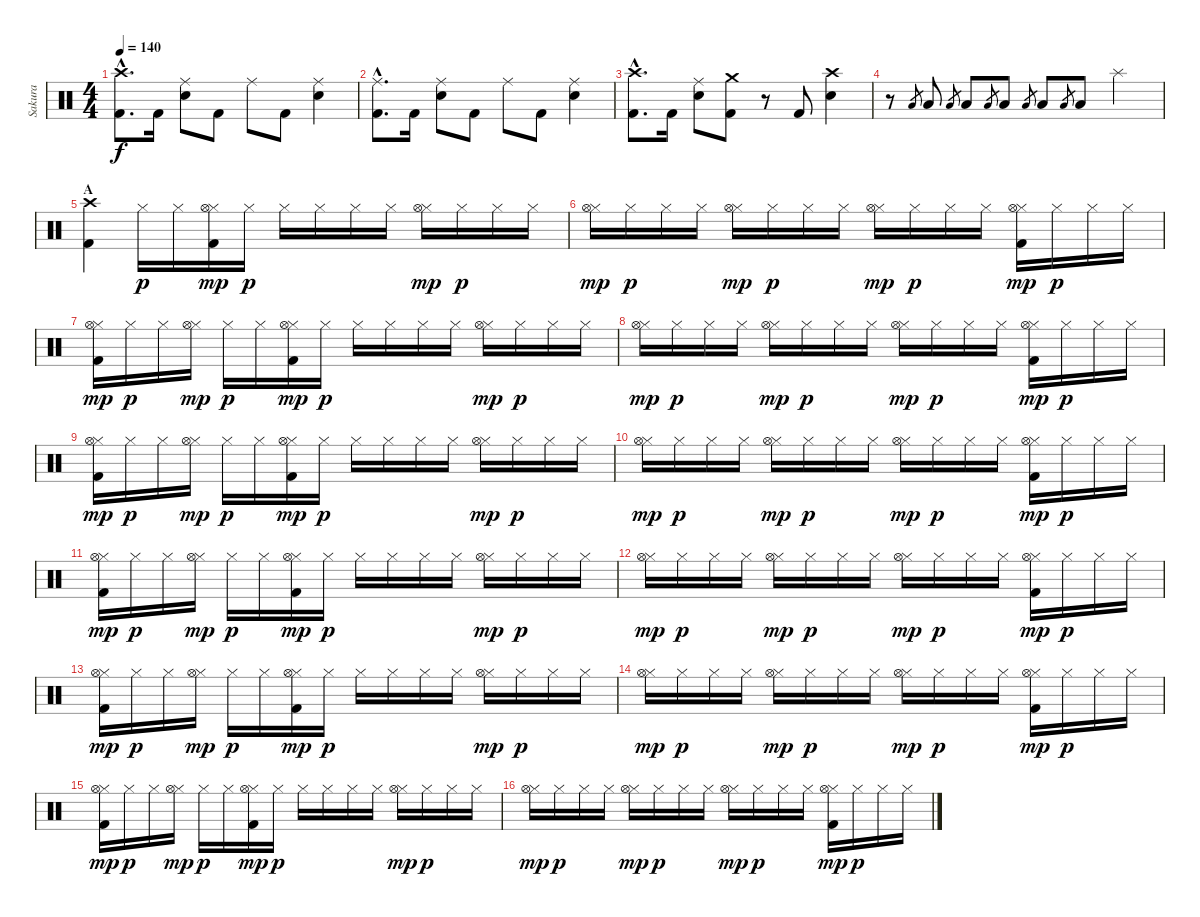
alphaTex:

\track ("Sakura" "Sakura") {instrument percussion}
\staff {score}
\articulation defaults
\ts (4 4)
\tempo 140
\clef neutral
\ks c
("Crash high (hit)"{hac} "Kick (hit) 2"{hac}).8{d dy f} "Kick (hit) 2".16 ("Ride (middle)" "Electric Snare (hit)").8 "Kick (hit) 2".8 "Ride (middle)".8 "Kick (hit) 2".8 ("Ride (middle)" "Electric Snare (hit)").4 |
("Ride (middle)"{hac} "Kick (hit) 2"{hac}).8{d} "Kick (hit) 2".16 ("Ride (middle)" "Electric Snare (hit)").8 "Kick (hit) 2".8 "Ride (middle)".8 "Kick (hit) 2".8 ("Ride (middle)" "Electric Snare (hit)").4 |
("Crash high (hit)"{hac} "Kick (hit) 2"{hac}).8{d} "Kick (hit) 2".16 ("Ride (middle)" "Electric Snare (hit)").8 ("Crash medium (hit)" "Kick (hit) 2").8 r.8 "Kick (hit) 2".8 ("Crash high (hit)" "Electric Snare (hit)").4 |
r.8 "Low Tom (hit)".8{gr} "Low Tom (hit)".8 "Low Tom (hit)".8{gr} "Low Tom (hit)".8 "Low Tom (hit)".8{gr} "Low Tom (hit)".8 "Low Tom (hit)".8{gr} "Low Tom (hit)".8 "Low Tom (hit)".8{gr} "Low Tom (hit)".8 "Splash (hit)".4 |
\section ("" "A")
("Crash high (hit)" "Kick (hit) 2").4 "Hi-Hat (closed)".16{dy p} "Hi-Hat (closed)".16 ("Hi-Hat (closed)" "Hi-Hat (open)" "Kick (hit) 2").16{dy mp} "Hi-Hat (closed)".16{dy p} "Hi-Hat (closed)".16 "Hi-Hat (closed)".16 "Hi-Hat (closed)".16 "Hi-Hat (closed)".16 ("Hi-Hat (closed)" "Hi-Hat (open)").16{dy mp} "Hi-Hat (closed)".16{dy p} "Hi-Hat (closed)".16 "Hi-Hat (closed)".16 |
("Hi-Hat (closed)" "Hi-Hat (open)").16{dy mp} "Hi-Hat (closed)".16{dy p} "Hi-Hat (closed)".16 "Hi-Hat (closed)".16 ("Hi-Hat (closed)" "Hi-Hat (open)").16{dy mp} "Hi-Hat (closed)".16{dy p} "Hi-Hat (closed)".16 "Hi-Hat (closed)".16 ("Hi-Hat (closed)" "Hi-Hat (open)").16{dy mp} "Hi-Hat (closed)".16{dy p} "Hi-Hat (closed)".16 "Hi-Hat (closed)".16 ("Hi-Hat (closed)" "Hi-Hat (open)" "Kick (hit) 2").16{dy mp} "Hi-Hat (closed)".16{dy p} "Hi-Hat (closed)".16 "Hi-Hat (closed)".16 |
("Hi-Hat (closed)" "Hi-Hat (open)" "Kick (hit) 2").16{dy mp} "Hi-Hat (closed)".16{dy p} "Hi-Hat (closed)".16 ("Hi-Hat (closed)" "Hi-Hat (open)").16{dy mp} "Hi-Hat (closed)".16{dy p} "Hi-Hat (closed)".16 ("Hi-Hat (closed)" "Hi-Hat (open)" "Kick (hit) 2").16{dy mp} "Hi-Hat (closed)".16{dy p} "Hi-Hat (closed)".16 "Hi-Hat (closed)".16 "Hi-Hat (closed)".16 "Hi-Hat (closed)".16 ("Hi-Hat (closed)" "Hi-Hat (open)").16{dy mp} "Hi-Hat (closed)".16{dy p} "Hi-Hat (closed)".16 "Hi-Hat (closed)".16 |
("Hi-Hat (closed)" "Hi-Hat (open)").16{dy mp} "Hi-Hat (closed)".16{dy p} "Hi-Hat (closed)".16 "Hi-Hat (closed)".16 ("Hi-Hat (closed)" "Hi-Hat (open)").16{dy mp} "Hi-Hat (closed)".16{dy p} "Hi-Hat (closed)".16 "Hi-Hat (closed)".16 ("Hi-Hat (closed)" "Hi-Hat (open)").16{dy mp} "Hi-Hat (closed)".16{dy p} "Hi-Hat (closed)".16 "Hi-Hat (closed)".16 ("Hi-Hat (closed)" "Hi-Hat (open)" "Kick (hit) 2").16{dy mp} "Hi-Hat (closed)".16{dy p} "Hi-Hat (closed)".16 "Hi-Hat (closed)".16 |
("Hi-Hat (closed)" "Hi-Hat (open)" "Kick (hit) 2").16{dy mp} "Hi-Hat (closed)".16{dy p} "Hi-Hat (closed)".16 ("Hi-Hat (closed)" "Hi-Hat (open)").16{dy mp} "Hi-Hat (closed)".16{dy p} "Hi-Hat (closed)".16 ("Hi-Hat (closed)" "Hi-Hat (open)" "Kick (hit) 2").16{dy mp} "Hi-Hat (closed)".16{dy p} "Hi-Hat (closed)".16 "Hi-Hat (closed)".16 "Hi-Hat (closed)".16 "Hi-Hat (closed)".16 ("Hi-Hat (closed)" "Hi-Hat (open)").16{dy mp} "Hi-Hat (closed)".16{dy p} "Hi-Hat (closed)".16 "Hi-Hat (closed)".16 |
("Hi-Hat (closed)" "Hi-Hat (open)").16{dy mp} "Hi-Hat (closed)".16{dy p} "Hi-Hat (closed)".16 "Hi-Hat (closed)".16 ("Hi-Hat (closed)" "Hi-Hat (open)").16{dy mp} "Hi-Hat (closed)".16{dy p} "Hi-Hat (closed)".16 "Hi-Hat (closed)".16 ("Hi-Hat (closed)" "Hi-Hat (open)").16{dy mp} "Hi-Hat (closed)".16{dy p} "Hi-Hat (closed)".16 "Hi-Hat (closed)".16 ("Hi-Hat (closed)" "Hi-Hat (open)" "Kick (hit) 2").16{dy mp} "Hi-Hat (closed)".16{dy p} "Hi-Hat (closed)".16 "Hi-Hat (closed)".16 |
("Hi-Hat (closed)" "Hi-Hat (open)" "Kick (hit) 2").16{dy mp} "Hi-Hat (closed)".16{dy p} "Hi-Hat (closed)".16 ("Hi-Hat (closed)" "Hi-Hat (open)").16{dy mp} "Hi-Hat (closed)".16{dy p} "Hi-Hat (closed)".16 ("Hi-Hat (closed)" "Hi-Hat (open)" "Kick (hit) 2").16{dy mp} "Hi-Hat (closed)".16{dy p} "Hi-Hat (closed)".16 "Hi-Hat (closed)".16 "Hi-Hat (closed)".16 "Hi-Hat (closed)".16 ("Hi-Hat (closed)" "Hi-Hat (open)").16{dy mp} "Hi-Hat (closed)".16{dy p} "Hi-Hat (closed)".16 "Hi-Hat (closed)".16 |
("Hi-Hat (closed)" "Hi-Hat (open)").16{dy mp} "Hi-Hat (closed)".16{dy p} "Hi-Hat (closed)".16 "Hi-Hat (closed)".16 ("Hi-Hat (closed)" "Hi-Hat (open)").16{dy mp} "Hi-Hat (closed)".16{dy p} "Hi-Hat (closed)".16 "Hi-Hat (closed)".16 ("Hi-Hat (closed)" "Hi-Hat (open)").16{dy mp} "Hi-Hat (closed)".16{dy p} "Hi-Hat (closed)".16 "Hi-Hat (closed)".16 ("Hi-Hat (closed)" "Hi-Hat (open)" "Kick (hit) 2").16{dy mp} "Hi-Hat (closed)".16{dy p} "Hi-Hat (closed)".16 "Hi-Hat (closed)".16 |
("Hi-Hat (closed)" "Hi-Hat (open)" "Kick (hit) 2").16{dy mp} "Hi-Hat (closed)".16{dy p} "Hi-Hat (closed)".16 ("Hi-Hat (closed)" "Hi-Hat (open)").16{dy mp} "Hi-Hat (closed)".16{dy p} "Hi-Hat (closed)".16 ("Hi-Hat (closed)" "Hi-Hat (open)" "Kick (hit) 2").16{dy mp} "Hi-Hat (closed)".16{dy p} "Hi-Hat (closed)".16 "Hi-Hat (closed)".16 "Hi-Hat (closed)".16 "Hi-Hat (closed)".16 ("Hi-Hat (closed)" "Hi-Hat (open)").16{dy mp} "Hi-Hat (closed)".16{dy p} "Hi-Hat (closed)".16 "Hi-Hat (closed)".16 |
("Hi-Hat (closed)" "Hi-Hat (open)").16{dy mp} "Hi-Hat (closed)".16{dy p} "Hi-Hat (closed)".16 "Hi-Hat (closed)".16 ("Hi-Hat (closed)" "Hi-Hat (open)").16{dy mp} "Hi-Hat (closed)".16{dy p} "Hi-Hat (closed)".16 "Hi-Hat (closed)".16 ("Hi-Hat (closed)" "Hi-Hat (open)").16{dy mp} "Hi-Hat (closed)".16{dy p} "Hi-Hat (closed)".16 "Hi-Hat (closed)".16 ("Hi-Hat (closed)" "Hi-Hat (open)" "Kick (hit) 2").16{dy mp} "Hi-Hat (closed)".16{dy p} "Hi-Hat (closed)".16 "Hi-Hat (closed)".16 |
("Hi-Hat (closed)" "Hi-Hat (open)" "Kick (hit) 2").16{dy mp} "Hi-Hat (closed)".16{dy p} "Hi-Hat (closed)".16 ("Hi-Hat (closed)" "Hi-Hat (open)").16{dy mp} "Hi-Hat (closed)".16{dy p} "Hi-Hat (closed)".16 ("Hi-Hat (closed)" "Hi-Hat (open)" "Kick (hit) 2").16{dy mp} "Hi-Hat (closed)".16{dy p} "Hi-Hat (closed)".16 "Hi-Hat (closed)".16 "Hi-Hat (closed)".16 "Hi-Hat (closed)".16 ("Hi-Hat (closed)" "Hi-Hat (open)").16{dy mp} "Hi-Hat (closed)".16{dy p} "Hi-Hat (closed)".16 "Hi-Hat (closed)".16 |
("Hi-Hat (closed)" "Hi-Hat (open)").16{dy mp} "Hi-Hat (closed)".16{dy p} "Hi-Hat (closed)".16 "Hi-Hat (closed)".16 ("Hi-Hat (closed)" "Hi-Hat (open)").16{dy mp} "Hi-Hat (closed)".16{dy p} "Hi-Hat (closed)".16 "Hi-Hat (closed)".16 ("Hi-Hat (closed)" "Hi-Hat (open)").16{dy mp} "Hi-Hat (closed)".16{dy p} "Hi-Hat (closed)".16 "Hi-Hat (closed)".16 ("Hi-Hat (closed)" "Hi-Hat (open)" "Kick (hit) 2").16{dy mp} "Hi-Hat (closed)".16{dy p} "Hi-Hat (closed)".16 "Hi-Hat (closed)".16
